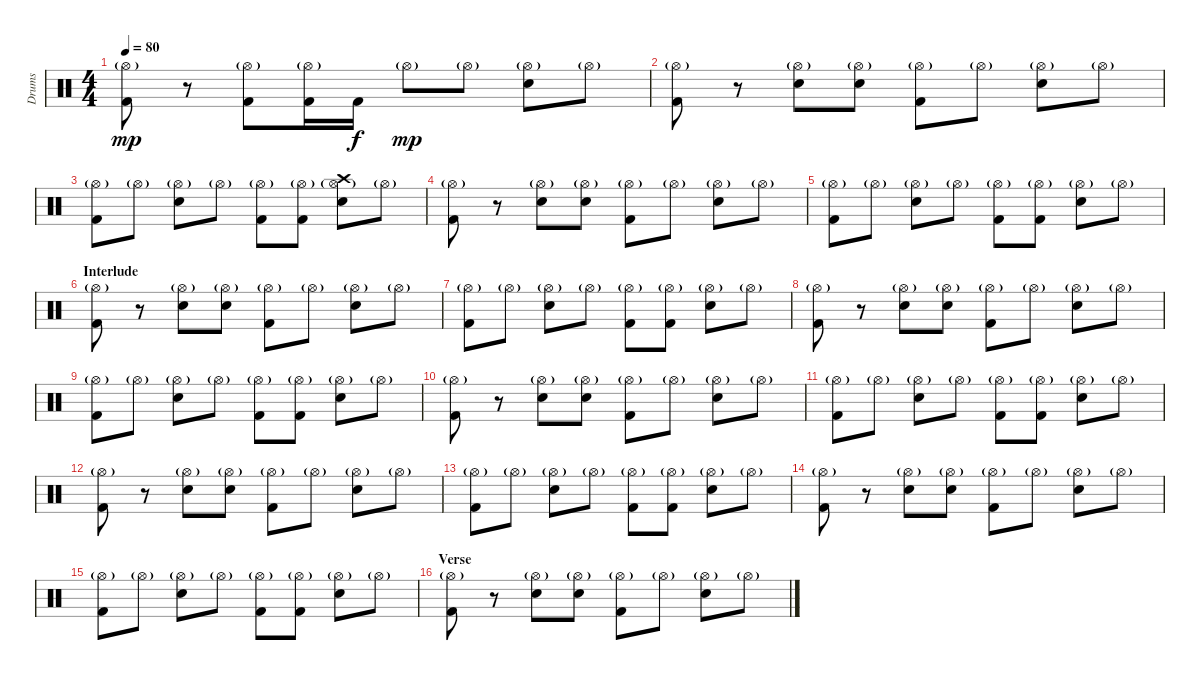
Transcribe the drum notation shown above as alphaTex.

\track ("Drums" "Drums") {instrument percussion}
\staff {score}
\articulation defaults
\ts (4 4)
\tempo 80
\clef neutral
\ks c
("Hi-Hat (open)"{g} "Kick (hit) 2").8{dy mp} r.8 ("Hi-Hat (open)"{g} "Kick (hit) 2").8 ("Hi-Hat (open)"{g} "Kick (hit) 2").16 "Kick (hit) 2".16{dy f} "Hi-Hat (open)"{g}.8{dy mp} "Hi-Hat (open)"{g}.8 ("Hi-Hat (open)"{g} "Snare (hit) 2").8 "Hi-Hat (open)"{g}.8 |
("Hi-Hat (open)"{g} "Kick (hit) 2").8 r.8 ("Hi-Hat (open)"{g} "Snare (hit) 2").8 ("Hi-Hat (open)"{g} "Snare (hit) 2").8 ("Hi-Hat (open)"{g} "Kick (hit) 2").8 "Hi-Hat (open)"{g}.8 ("Hi-Hat (open)"{g} "Snare (hit) 2").8 "Hi-Hat (open)"{g}.8 |
("Hi-Hat (open)"{g} "Kick (hit) 2").8 "Hi-Hat (open)"{g}.8 ("Hi-Hat (open)"{g} "Snare (hit) 2").8 "Hi-Hat (open)"{g}.8 ("Hi-Hat (open)"{g} "Kick (hit) 2").8 ("Hi-Hat (open)"{g} "Kick (hit) 2").8 ("Hi-Hat (open)"{g} "Crash high (hit)" "Snare (hit) 2").8 "Hi-Hat (open)"{g}.8 |
("Hi-Hat (open)"{g} "Kick (hit) 2").8 r.8 ("Hi-Hat (open)"{g} "Snare (hit) 2").8 ("Hi-Hat (open)"{g} "Snare (hit) 2").8 ("Hi-Hat (open)"{g} "Kick (hit) 2").8 "Hi-Hat (open)"{g}.8 ("Hi-Hat (open)"{g} "Snare (hit) 2").8 "Hi-Hat (open)"{g}.8 |
("Hi-Hat (open)"{g} "Kick (hit) 2").8 "Hi-Hat (open)"{g}.8 ("Hi-Hat (open)"{g} "Snare (hit) 2").8 "Hi-Hat (open)"{g}.8 ("Hi-Hat (open)"{g} "Kick (hit) 2").8 ("Hi-Hat (open)"{g} "Kick (hit) 2").8 ("Hi-Hat (open)"{g} "Snare (hit) 2").8 "Hi-Hat (open)"{g}.8 |
\section ("" "Interlude")
("Hi-Hat (open)"{g} "Kick (hit) 2").8 r.8 ("Hi-Hat (open)"{g} "Snare (hit) 2").8 ("Hi-Hat (open)"{g} "Snare (hit) 2").8 ("Hi-Hat (open)"{g} "Kick (hit) 2").8 "Hi-Hat (open)"{g}.8 ("Hi-Hat (open)"{g} "Snare (hit) 2").8 "Hi-Hat (open)"{g}.8 |
("Hi-Hat (open)"{g} "Kick (hit) 2").8 "Hi-Hat (open)"{g}.8 ("Hi-Hat (open)"{g} "Snare (hit) 2").8 "Hi-Hat (open)"{g}.8 ("Hi-Hat (open)"{g} "Kick (hit) 2").8 ("Hi-Hat (open)"{g} "Kick (hit) 2").8 ("Hi-Hat (open)"{g} "Snare (hit) 2").8 "Hi-Hat (open)"{g}.8 |
("Hi-Hat (open)"{g} "Kick (hit) 2").8 r.8 ("Hi-Hat (open)"{g} "Snare (hit) 2").8 ("Hi-Hat (open)"{g} "Snare (hit) 2").8 ("Hi-Hat (open)"{g} "Kick (hit) 2").8 "Hi-Hat (open)"{g}.8 ("Hi-Hat (open)"{g} "Snare (hit) 2").8 "Hi-Hat (open)"{g}.8 |
("Hi-Hat (open)"{g} "Kick (hit) 2").8 "Hi-Hat (open)"{g}.8 ("Hi-Hat (open)"{g} "Snare (hit) 2").8 "Hi-Hat (open)"{g}.8 ("Hi-Hat (open)"{g} "Kick (hit) 2").8 ("Hi-Hat (open)"{g} "Kick (hit) 2").8 ("Hi-Hat (open)"{g} "Snare (hit) 2").8 "Hi-Hat (open)"{g}.8 |
("Hi-Hat (open)"{g} "Kick (hit) 2").8 r.8 ("Hi-Hat (open)"{g} "Snare (hit) 2").8 ("Hi-Hat (open)"{g} "Snare (hit) 2").8 ("Hi-Hat (open)"{g} "Kick (hit) 2").8 "Hi-Hat (open)"{g}.8 ("Hi-Hat (open)"{g} "Snare (hit) 2").8 "Hi-Hat (open)"{g}.8 |
("Hi-Hat (open)"{g} "Kick (hit) 2").8 "Hi-Hat (open)"{g}.8 ("Hi-Hat (open)"{g} "Snare (hit) 2").8 "Hi-Hat (open)"{g}.8 ("Hi-Hat (open)"{g} "Kick (hit) 2").8 ("Hi-Hat (open)"{g} "Kick (hit) 2").8 ("Hi-Hat (open)"{g} "Snare (hit) 2").8 "Hi-Hat (open)"{g}.8 |
("Hi-Hat (open)"{g} "Kick (hit) 2").8 r.8 ("Hi-Hat (open)"{g} "Snare (hit) 2").8 ("Hi-Hat (open)"{g} "Snare (hit) 2").8 ("Hi-Hat (open)"{g} "Kick (hit) 2").8 "Hi-Hat (open)"{g}.8 ("Hi-Hat (open)"{g} "Snare (hit) 2").8 "Hi-Hat (open)"{g}.8 |
("Hi-Hat (open)"{g} "Kick (hit) 2").8 "Hi-Hat (open)"{g}.8 ("Hi-Hat (open)"{g} "Snare (hit) 2").8 "Hi-Hat (open)"{g}.8 ("Hi-Hat (open)"{g} "Kick (hit) 2").8 ("Hi-Hat (open)"{g} "Kick (hit) 2").8 ("Hi-Hat (open)"{g} "Snare (hit) 2").8 "Hi-Hat (open)"{g}.8 |
("Hi-Hat (open)"{g} "Kick (hit) 2").8 r.8 ("Hi-Hat (open)"{g} "Snare (hit) 2").8 ("Hi-Hat (open)"{g} "Snare (hit) 2").8 ("Hi-Hat (open)"{g} "Kick (hit) 2").8 "Hi-Hat (open)"{g}.8 ("Hi-Hat (open)"{g} "Snare (hit) 2").8 "Hi-Hat (open)"{g}.8 |
("Hi-Hat (open)"{g} "Kick (hit) 2").8 "Hi-Hat (open)"{g}.8 ("Hi-Hat (open)"{g} "Snare (hit) 2").8 "Hi-Hat (open)"{g}.8 ("Hi-Hat (open)"{g} "Kick (hit) 2").8 ("Hi-Hat (open)"{g} "Kick (hit) 2").8 ("Hi-Hat (open)"{g} "Snare (hit) 2").8 "Hi-Hat (open)"{g}.8 |
\section ("" "Verse")
("Hi-Hat (open)"{g} "Kick (hit) 2").8 r.8 ("Hi-Hat (open)"{g} "Snare (hit) 2").8 ("Hi-Hat (open)"{g} "Snare (hit) 2").8 ("Hi-Hat (open)"{g} "Kick (hit) 2").8 "Hi-Hat (open)"{g}.8 ("Hi-Hat (open)"{g} "Snare (hit) 2").8 "Hi-Hat (open)"{g}.8
